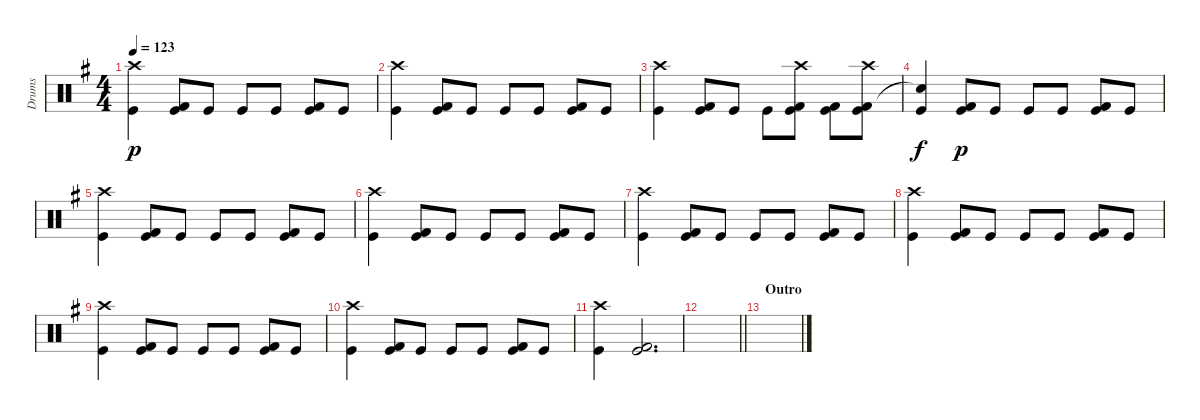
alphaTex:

\track ("Drums" "Drums") {instrument percussion}
\staff {score}
\articulation defaults
\ts (4 4)
\tempo 123
\clef neutral
\ks g
("Crash high (hit)" "Kick (hit)").4{dy p} ("Kick (hit) 2" "Kick (hit)").8 "Kick (hit)".8 "Kick (hit)".8 "Kick (hit)".8 ("Kick (hit) 2" "Kick (hit)").8 "Kick (hit)".8 |
("Crash high (hit)" "Kick (hit)").4 ("Kick (hit) 2" "Kick (hit)").8 "Kick (hit)".8 "Kick (hit)".8 "Kick (hit)".8 ("Kick (hit) 2" "Kick (hit)").8 "Kick (hit)".8 |
("Crash high (hit)" "Kick (hit)").4 ("Kick (hit) 2" "Kick (hit)").8 "Kick (hit)".8 "Kick (hit)".8 ("Kick (hit) 2" "Crash high (hit)" "Kick (hit)").8 ("Kick (hit) 2" "Kick (hit)").8 ("Kick (hit) 2" "Crash high (hit)" "Kick (hit)").8 |
("Snare (hit)"{t} "Kick (hit)").4{dy f} ("Kick (hit) 2" "Kick (hit)").8{dy p} "Kick (hit)".8 "Kick (hit)".8 "Kick (hit)".8 ("Kick (hit) 2" "Kick (hit)").8 "Kick (hit)".8 |
("Crash high (hit)" "Kick (hit)").4 ("Kick (hit) 2" "Kick (hit)").8 "Kick (hit)".8 "Kick (hit)".8 "Kick (hit)".8 ("Kick (hit) 2" "Kick (hit)").8 "Kick (hit)".8 |
("Crash high (hit)" "Kick (hit)").4 ("Kick (hit) 2" "Kick (hit)").8 "Kick (hit)".8 "Kick (hit)".8 "Kick (hit)".8 ("Kick (hit) 2" "Kick (hit)").8 "Kick (hit)".8 |
("Crash high (hit)" "Kick (hit)").4 ("Kick (hit) 2" "Kick (hit)").8 "Kick (hit)".8 "Kick (hit)".8 "Kick (hit)".8 ("Kick (hit) 2" "Kick (hit)").8 "Kick (hit)".8 |
("Crash high (hit)" "Kick (hit)").4 ("Kick (hit) 2" "Kick (hit)").8 "Kick (hit)".8 "Kick (hit)".8 "Kick (hit)".8 ("Kick (hit) 2" "Kick (hit)").8 "Kick (hit)".8 |
("Crash high (hit)" "Kick (hit)").4 ("Kick (hit) 2" "Kick (hit)").8 "Kick (hit)".8 "Kick (hit)".8 "Kick (hit)".8 ("Kick (hit) 2" "Kick (hit)").8 "Kick (hit)".8 |
("Crash high (hit)" "Kick (hit)").4 ("Kick (hit) 2" "Kick (hit)").8 "Kick (hit)".8 "Kick (hit)".8 "Kick (hit)".8 ("Kick (hit) 2" "Kick (hit)").8 "Kick (hit)".8 |
("Crash high (hit)" "Kick (hit)").4 ("Kick (hit) 2" "Kick (hit)").2{d} |
\barLineRight lightlight
|
\section ("" "Outro")
